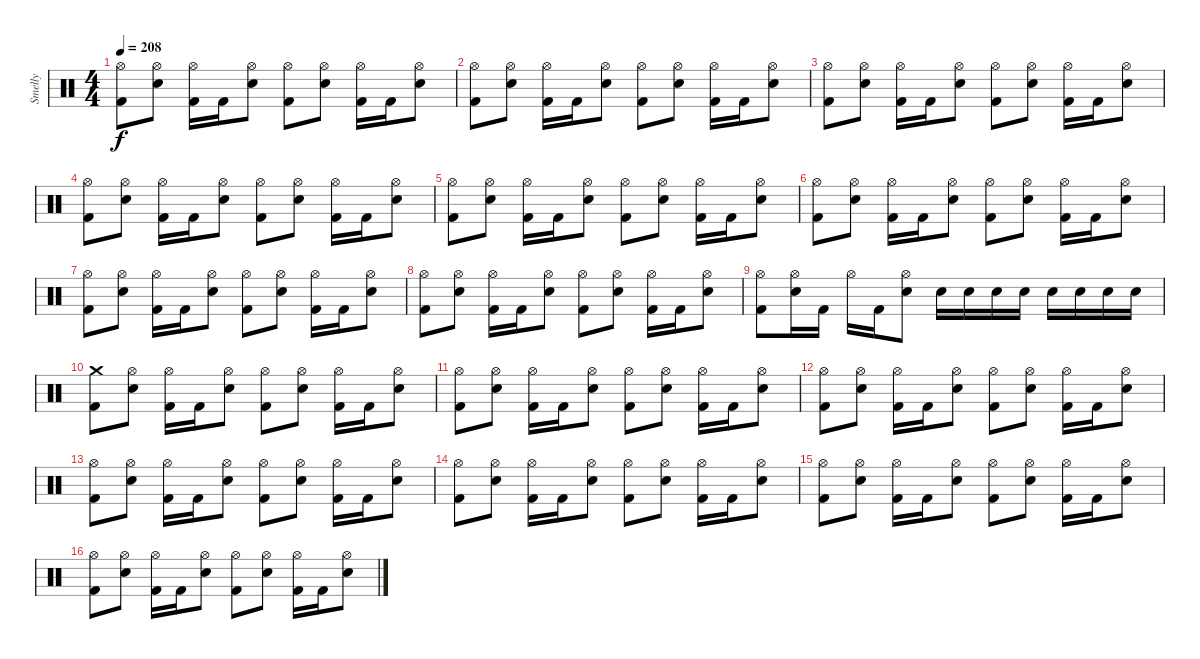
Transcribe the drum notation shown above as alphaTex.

\track ("Smelly" "Smelly") {instrument percussion}
\staff {score}
\articulation defaults
\ts (4 4)
\tempo 208
\clef neutral
\ks c
("Kick (hit) 2" "Hi-Hat (open)").8{dy f} ("Hi-Hat (open)" "Electric Snare (hit)").8 ("Kick (hit) 2" "Hi-Hat (open)").16 "Kick (hit) 2".16 ("Hi-Hat (open)" "Electric Snare (hit)").8 ("Kick (hit) 2" "Hi-Hat (open)").8 ("Hi-Hat (open)" "Electric Snare (hit)").8 ("Kick (hit) 2" "Hi-Hat (open)").16 "Kick (hit) 2".16 ("Hi-Hat (open)" "Electric Snare (hit)").8 |
("Kick (hit) 2" "Hi-Hat (open)").8 ("Hi-Hat (open)" "Electric Snare (hit)").8 ("Kick (hit) 2" "Hi-Hat (open)").16 "Kick (hit) 2".16 ("Hi-Hat (open)" "Electric Snare (hit)").8 ("Kick (hit) 2" "Hi-Hat (open)").8 ("Hi-Hat (open)" "Electric Snare (hit)").8 ("Kick (hit) 2" "Hi-Hat (open)").16 "Kick (hit) 2".16 ("Hi-Hat (open)" "Electric Snare (hit)").8 |
("Kick (hit) 2" "Hi-Hat (open)").8 ("Hi-Hat (open)" "Electric Snare (hit)").8 ("Kick (hit) 2" "Hi-Hat (open)").16 "Kick (hit) 2".16 ("Hi-Hat (open)" "Electric Snare (hit)").8 ("Kick (hit) 2" "Hi-Hat (open)").8 ("Hi-Hat (open)" "Electric Snare (hit)").8 ("Kick (hit) 2" "Hi-Hat (open)").16 "Kick (hit) 2".16 ("Hi-Hat (open)" "Electric Snare (hit)").8 |
("Kick (hit) 2" "Hi-Hat (open)").8 ("Hi-Hat (open)" "Electric Snare (hit)").8 ("Kick (hit) 2" "Hi-Hat (open)").16 "Kick (hit) 2".16 ("Hi-Hat (open)" "Electric Snare (hit)").8 ("Kick (hit) 2" "Hi-Hat (open)").8 ("Hi-Hat (open)" "Electric Snare (hit)").8 ("Kick (hit) 2" "Hi-Hat (open)").16 "Kick (hit) 2".16 ("Hi-Hat (open)" "Electric Snare (hit)").8 |
("Kick (hit) 2" "Hi-Hat (open)").8 ("Hi-Hat (open)" "Electric Snare (hit)").8 ("Kick (hit) 2" "Hi-Hat (open)").16 "Kick (hit) 2".16 ("Hi-Hat (open)" "Electric Snare (hit)").8 ("Kick (hit) 2" "Hi-Hat (open)").8 ("Hi-Hat (open)" "Electric Snare (hit)").8 ("Kick (hit) 2" "Hi-Hat (open)").16 "Kick (hit) 2".16 ("Hi-Hat (open)" "Electric Snare (hit)").8 |
("Kick (hit) 2" "Hi-Hat (open)").8 ("Hi-Hat (open)" "Electric Snare (hit)").8 ("Kick (hit) 2" "Hi-Hat (open)").16 "Kick (hit) 2".16 ("Hi-Hat (open)" "Electric Snare (hit)").8 ("Kick (hit) 2" "Hi-Hat (open)").8 ("Hi-Hat (open)" "Electric Snare (hit)").8 ("Kick (hit) 2" "Hi-Hat (open)").16 "Kick (hit) 2".16 ("Hi-Hat (open)" "Electric Snare (hit)").8 |
("Kick (hit) 2" "Hi-Hat (open)").8 ("Hi-Hat (open)" "Electric Snare (hit)").8 ("Kick (hit) 2" "Hi-Hat (open)").16 "Kick (hit) 2".16 ("Hi-Hat (open)" "Electric Snare (hit)").8 ("Kick (hit) 2" "Hi-Hat (open)").8 ("Hi-Hat (open)" "Electric Snare (hit)").8 ("Kick (hit) 2" "Hi-Hat (open)").16 "Kick (hit) 2".16 ("Hi-Hat (open)" "Electric Snare (hit)").8 |
("Kick (hit) 2" "Hi-Hat (open)").8 ("Hi-Hat (open)" "Electric Snare (hit)").8 ("Kick (hit) 2" "Hi-Hat (open)").16 "Kick (hit) 2".16 ("Hi-Hat (open)" "Electric Snare (hit)").8 ("Kick (hit) 2" "Hi-Hat (open)").8 ("Hi-Hat (open)" "Electric Snare (hit)").8 ("Kick (hit) 2" "Hi-Hat (open)").16 "Kick (hit) 2".16 ("Hi-Hat (open)" "Electric Snare (hit)").8 |
("Hi-Hat (open)" "Kick (hit) 2").8 ("Hi-Hat (open)" "Electric Snare (hit)").16 "Kick (hit) 2".16 "Hi-Hat (open)".16 "Kick (hit) 2".16 ("Hi-Hat (open)" "Electric Snare (hit)").8 "Electric Snare (hit)".16 "Electric Snare (hit)".16 "Electric Snare (hit)".16 "Electric Snare (hit)".16 "Electric Snare (hit)".16 "Electric Snare (hit)".16 "Electric Snare (hit)".16 "Electric Snare (hit)".16 |
("Crash medium (hit)" "Kick (hit) 2").8 ("Hi-Hat (open)" "Electric Snare (hit)").8 ("Kick (hit) 2" "Hi-Hat (open)").16 "Kick (hit) 2".16 ("Hi-Hat (open)" "Electric Snare (hit)").8 ("Kick (hit) 2" "Hi-Hat (open)").8 ("Hi-Hat (open)" "Electric Snare (hit)").8 ("Kick (hit) 2" "Hi-Hat (open)").16 "Kick (hit) 2".16 ("Hi-Hat (open)" "Electric Snare (hit)").8 |
("Kick (hit) 2" "Hi-Hat (open)").8 ("Hi-Hat (open)" "Electric Snare (hit)").8 ("Kick (hit) 2" "Hi-Hat (open)").16 "Kick (hit) 2".16 ("Hi-Hat (open)" "Electric Snare (hit)").8 ("Kick (hit) 2" "Hi-Hat (open)").8 ("Hi-Hat (open)" "Electric Snare (hit)").8 ("Kick (hit) 2" "Hi-Hat (open)").16 "Kick (hit) 2".16 ("Hi-Hat (open)" "Electric Snare (hit)").8 |
("Kick (hit) 2" "Hi-Hat (open)").8 ("Hi-Hat (open)" "Electric Snare (hit)").8 ("Kick (hit) 2" "Hi-Hat (open)").16 "Kick (hit) 2".16 ("Hi-Hat (open)" "Electric Snare (hit)").8 ("Kick (hit) 2" "Hi-Hat (open)").8 ("Hi-Hat (open)" "Electric Snare (hit)").8 ("Kick (hit) 2" "Hi-Hat (open)").16 "Kick (hit) 2".16 ("Hi-Hat (open)" "Electric Snare (hit)").8 |
("Kick (hit) 2" "Hi-Hat (open)").8 ("Hi-Hat (open)" "Electric Snare (hit)").8 ("Kick (hit) 2" "Hi-Hat (open)").16 "Kick (hit) 2".16 ("Hi-Hat (open)" "Electric Snare (hit)").8 ("Kick (hit) 2" "Hi-Hat (open)").8 ("Hi-Hat (open)" "Electric Snare (hit)").8 ("Kick (hit) 2" "Hi-Hat (open)").16 "Kick (hit) 2".16 ("Hi-Hat (open)" "Electric Snare (hit)").8 |
("Kick (hit) 2" "Hi-Hat (open)").8 ("Hi-Hat (open)" "Electric Snare (hit)").8 ("Kick (hit) 2" "Hi-Hat (open)").16 "Kick (hit) 2".16 ("Hi-Hat (open)" "Electric Snare (hit)").8 ("Kick (hit) 2" "Hi-Hat (open)").8 ("Hi-Hat (open)" "Electric Snare (hit)").8 ("Kick (hit) 2" "Hi-Hat (open)").16 "Kick (hit) 2".16 ("Hi-Hat (open)" "Electric Snare (hit)").8 |
("Kick (hit) 2" "Hi-Hat (open)").8 ("Hi-Hat (open)" "Electric Snare (hit)").8 ("Kick (hit) 2" "Hi-Hat (open)").16 "Kick (hit) 2".16 ("Hi-Hat (open)" "Electric Snare (hit)").8 ("Kick (hit) 2" "Hi-Hat (open)").8 ("Hi-Hat (open)" "Electric Snare (hit)").8 ("Kick (hit) 2" "Hi-Hat (open)").16 "Kick (hit) 2".16 ("Hi-Hat (open)" "Electric Snare (hit)").8 |
("Kick (hit) 2" "Hi-Hat (open)").8 ("Hi-Hat (open)" "Electric Snare (hit)").8 ("Kick (hit) 2" "Hi-Hat (open)").16 "Kick (hit) 2".16 ("Hi-Hat (open)" "Electric Snare (hit)").8 ("Kick (hit) 2" "Hi-Hat (open)").8 ("Hi-Hat (open)" "Electric Snare (hit)").8 ("Kick (hit) 2" "Hi-Hat (open)").16 "Kick (hit) 2".16 ("Hi-Hat (open)" "Electric Snare (hit)").8
